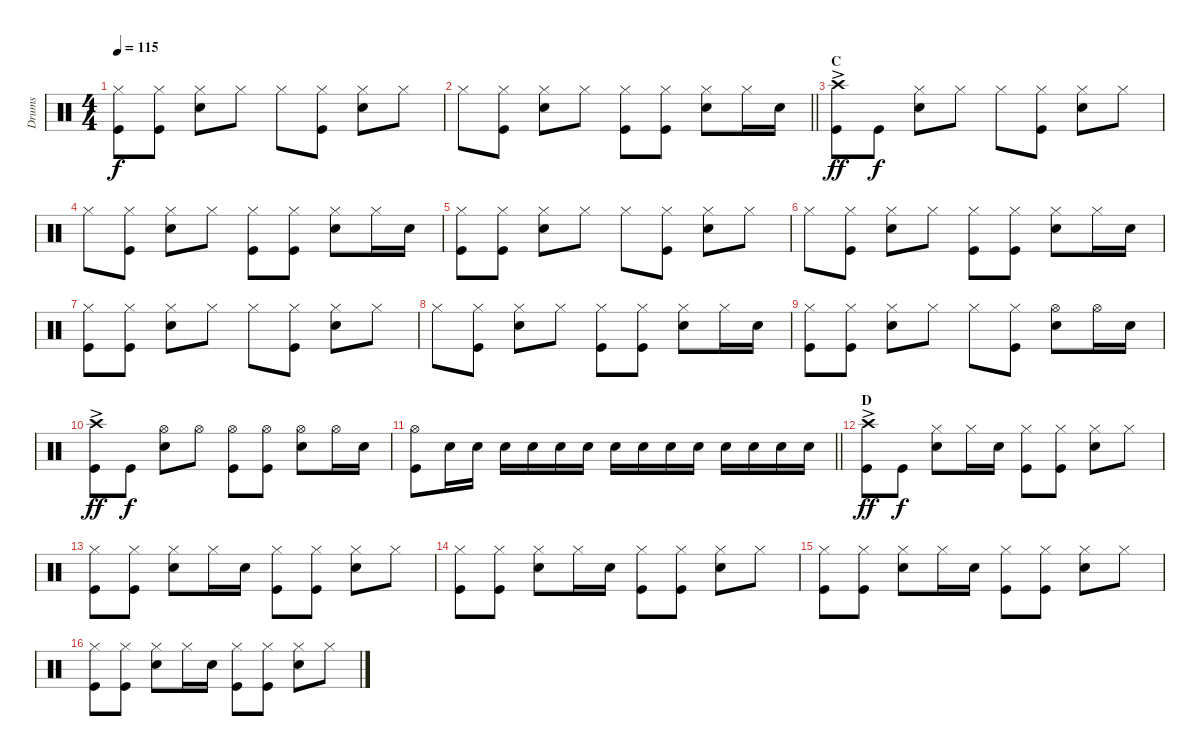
\track ("Drums" "Drums") {instrument percussion}
\staff {score}
\articulation defaults
\ts (4 4)
\tempo 115
\clef neutral
\ks c
("Hi-Hat (closed)" "Kick (hit)").8{dy f} ("Hi-Hat (closed)" "Kick (hit)").8 ("Hi-Hat (closed)" "Snare (hit) 2").8 "Hi-Hat (closed)".8 "Hi-Hat (closed)".8 ("Hi-Hat (closed)" "Kick (hit)").8 ("Hi-Hat (closed)" "Snare (hit) 2").8 "Hi-Hat (closed)".8 |
\barLineRight lightlight "Hi-Hat (closed)".8
("Hi-Hat (closed)" "Kick (hit)").8 ("Hi-Hat (closed)" "Snare (hit) 2").8 "Hi-Hat (closed)".8 ("Hi-Hat (closed)" "Kick (hit)").8 ("Hi-Hat (closed)" "Kick (hit)").8 ("Hi-Hat (closed)" "Snare (hit) 2").8 "Hi-Hat (closed)".16 "Snare (hit) 2".16 |
\section ("" "C")
("Crash high (hit)"{ac} "Kick (hit)").8{dy ff} "Kick (hit)".8{dy f} ("Snare (hit) 2" "Hi-Hat (closed)").8 "Hi-Hat (closed)".8 "Hi-Hat (closed)".8 ("Hi-Hat (closed)" "Kick (hit)").8 ("Hi-Hat (closed)" "Snare (hit) 2").8 "Hi-Hat (closed)".8 |
"Hi-Hat (closed)".8 ("Hi-Hat (closed)" "Kick (hit)").8 ("Hi-Hat (closed)" "Snare (hit) 2").8 "Hi-Hat (closed)".8 ("Hi-Hat (closed)" "Kick (hit)").8 ("Hi-Hat (closed)" "Kick (hit)").8 ("Hi-Hat (closed)" "Snare (hit) 2").8 "Hi-Hat (closed)".16 "Snare (hit) 2".16 |
("Hi-Hat (closed)" "Kick (hit)").8 ("Hi-Hat (closed)" "Kick (hit)").8 ("Hi-Hat (closed)" "Snare (hit) 2").8 "Hi-Hat (closed)".8 "Hi-Hat (closed)".8 ("Hi-Hat (closed)" "Kick (hit)").8 ("Hi-Hat (closed)" "Snare (hit) 2").8 "Hi-Hat (closed)".8 |
"Hi-Hat (closed)".8 ("Hi-Hat (closed)" "Kick (hit)").8 ("Hi-Hat (closed)" "Snare (hit) 2").8 "Hi-Hat (closed)".8 ("Hi-Hat (closed)" "Kick (hit)").8 ("Hi-Hat (closed)" "Kick (hit)").8 ("Hi-Hat (closed)" "Snare (hit) 2").8 "Hi-Hat (closed)".16 "Snare (hit) 2".16 |
("Hi-Hat (closed)" "Kick (hit)").8 ("Hi-Hat (closed)" "Kick (hit)").8 ("Hi-Hat (closed)" "Snare (hit) 2").8 "Hi-Hat (closed)".8 "Hi-Hat (closed)".8 ("Hi-Hat (closed)" "Kick (hit)").8 ("Hi-Hat (closed)" "Snare (hit) 2").8 "Hi-Hat (closed)".8 |
"Hi-Hat (closed)".8 ("Hi-Hat (closed)" "Kick (hit)").8 ("Hi-Hat (closed)" "Snare (hit) 2").8 "Hi-Hat (closed)".8 ("Hi-Hat (closed)" "Kick (hit)").8 ("Hi-Hat (closed)" "Kick (hit)").8 ("Hi-Hat (closed)" "Snare (hit) 2").8 "Hi-Hat (closed)".16 "Snare (hit) 2".16 |
("Hi-Hat (closed)" "Kick (hit)").8 ("Hi-Hat (closed)" "Kick (hit)").8 ("Hi-Hat (closed)" "Snare (hit) 2").8 "Hi-Hat (closed)".8 "Hi-Hat (closed)".8 ("Hi-Hat (closed)" "Kick (hit)").8 ("Snare (hit) 2" "Hi-Hat (open)").8 "Hi-Hat (open)".16 "Snare (hit) 2".16 |
("Crash high (hit)"{ac} "Kick (hit)").8{dy ff} "Kick (hit)".8{dy f} ("Hi-Hat (open)" "Snare (hit) 2").8 "Hi-Hat (open)".8 ("Hi-Hat (open)" "Kick (hit)").8 ("Hi-Hat (open)" "Kick (hit)").8 ("Hi-Hat (open)" "Snare (hit) 2").8 "Hi-Hat (open)".16 "Snare (hit) 2".16 |
\barLineRight lightlight
("Hi-Hat (open)" "Kick (hit)").8 "Snare (hit) 2".16 "Snare (hit) 2".16 "Snare (hit) 2".16 "Snare (hit) 2".16 "Snare (hit) 2".16 "Snare (hit) 2".16 "Snare (hit) 2".16 "Snare (hit) 2".16 "Snare (hit) 2".16 "Snare (hit) 2".16 "Snare (hit) 2".16 "Snare (hit) 2".16 "Snare (hit) 2".16 "Snare (hit) 2".16 |
\section ("" "D")
("Crash high (hit)"{ac} "Kick (hit)").8{dy ff} "Kick (hit)".8{dy f} ("Snare (hit) 2" "Hi-Hat (closed)").8 "Hi-Hat (closed)".16 "Snare (hit) 2".16 ("Hi-Hat (closed)" "Kick (hit)").8 ("Hi-Hat (closed)" "Kick (hit)").8 ("Hi-Hat (closed)" "Snare (hit) 2").8 "Hi-Hat (closed)".8 |
("Hi-Hat (closed)" "Kick (hit)").8 ("Hi-Hat (closed)" "Kick (hit)").8 ("Hi-Hat (closed)" "Snare (hit) 2").8 "Hi-Hat (closed)".16 "Snare (hit) 2".16 ("Hi-Hat (closed)" "Kick (hit)").8 ("Hi-Hat (closed)" "Kick (hit)").8 ("Hi-Hat (closed)" "Snare (hit) 2").8 "Hi-Hat (closed)".8 |
("Hi-Hat (closed)" "Kick (hit)").8 ("Hi-Hat (closed)" "Kick (hit)").8 ("Hi-Hat (closed)" "Snare (hit) 2").8 "Hi-Hat (closed)".16 "Snare (hit) 2".16 ("Hi-Hat (closed)" "Kick (hit)").8 ("Hi-Hat (closed)" "Kick (hit)").8 ("Hi-Hat (closed)" "Snare (hit) 2").8 "Hi-Hat (closed)".8 |
("Hi-Hat (closed)" "Kick (hit)").8 ("Hi-Hat (closed)" "Kick (hit)").8 ("Hi-Hat (closed)" "Snare (hit) 2").8 "Hi-Hat (closed)".16 "Snare (hit) 2".16 ("Hi-Hat (closed)" "Kick (hit)").8 ("Hi-Hat (closed)" "Kick (hit)").8 ("Hi-Hat (closed)" "Snare (hit) 2").8 "Hi-Hat (closed)".8 |
("Hi-Hat (closed)" "Kick (hit)").8 ("Hi-Hat (closed)" "Kick (hit)").8 ("Hi-Hat (closed)" "Snare (hit) 2").8 "Hi-Hat (closed)".16 "Snare (hit) 2".16 ("Hi-Hat (closed)" "Kick (hit)").8 ("Hi-Hat (closed)" "Kick (hit)").8 ("Hi-Hat (closed)" "Snare (hit) 2").8 "Hi-Hat (closed)".8
